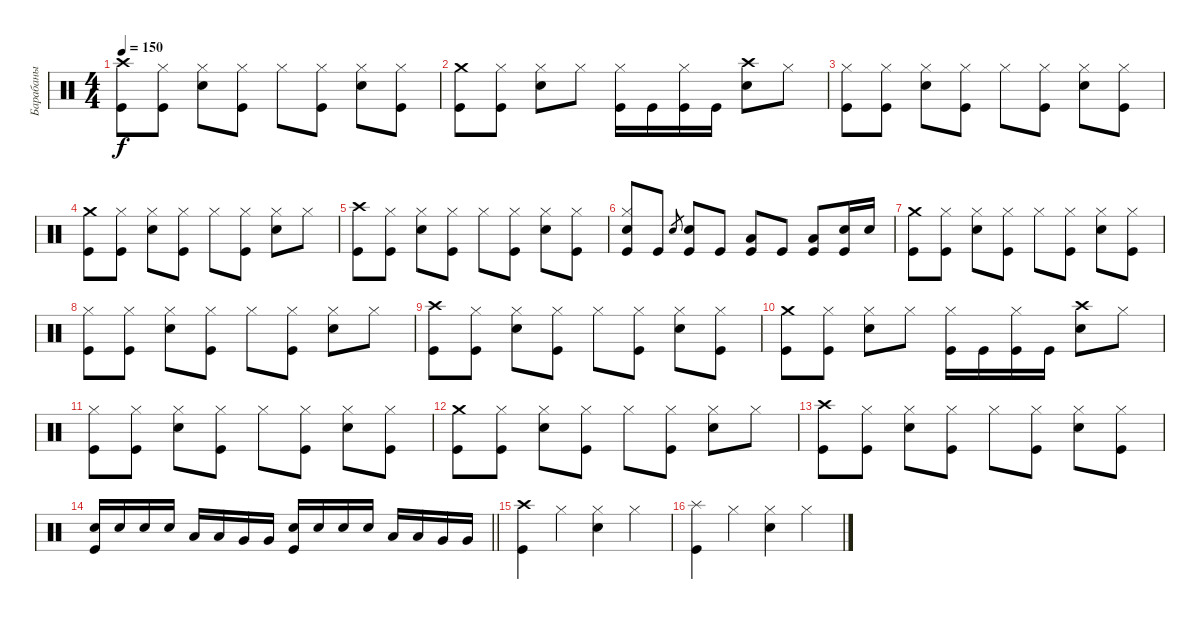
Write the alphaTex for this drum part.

\track ("Барабаны" "Барабаны") {instrument percussion}
\staff {score}
\articulation defaults
\ts (4 4)
\tempo 150
\clef neutral
\ks c
("Crash high (hit)" "Kick (hit)").8{dy f} ("Hi-Hat (closed)" "Kick (hit)").8 ("Hi-Hat (closed)" "Electric Snare (hit)").8 ("Hi-Hat (closed)" "Kick (hit)").8 "Hi-Hat (closed)".8 ("Hi-Hat (closed)" "Kick (hit)").8 ("Hi-Hat (closed)" "Electric Snare (hit)").8 ("Hi-Hat (closed)" "Kick (hit)").8 |
("Crash medium (hit)" "Kick (hit)").8 ("Hi-Hat (closed)" "Kick (hit)").8 ("Hi-Hat (closed)" "Electric Snare (hit)").8 "Hi-Hat (closed)".8 ("Hi-Hat (closed)" "Kick (hit)").16 "Kick (hit)".16 ("Hi-Hat (closed)" "Kick (hit)").16 "Kick (hit)".16 ("Crash high (hit)" "Electric Snare (hit)").8 "Hi-Hat (closed)".8 |
("Hi-Hat (closed)" "Kick (hit)").8 ("Hi-Hat (closed)" "Kick (hit)").8 ("Hi-Hat (closed)" "Electric Snare (hit)").8 ("Hi-Hat (closed)" "Kick (hit)").8 "Hi-Hat (closed)".8 ("Hi-Hat (closed)" "Kick (hit)").8 ("Hi-Hat (closed)" "Electric Snare (hit)").8 ("Hi-Hat (closed)" "Kick (hit)").8 |
("Crash medium (hit)" "Kick (hit)").8 ("Hi-Hat (closed)" "Kick (hit)").8 ("Hi-Hat (closed)" "Electric Snare (hit)").8 ("Hi-Hat (closed)" "Kick (hit)").8 "Hi-Hat (closed)".8 ("Hi-Hat (closed)" "Kick (hit)").8 ("Hi-Hat (closed)" "Electric Snare (hit)").8 "Hi-Hat (closed)".8 |
("Crash high (hit)" "Kick (hit)").8 ("Hi-Hat (closed)" "Kick (hit)").8 ("Hi-Hat (closed)" "Electric Snare (hit)").8 ("Hi-Hat (closed)" "Kick (hit)").8 "Hi-Hat (closed)".8 ("Hi-Hat (closed)" "Kick (hit)").8 ("Hi-Hat (closed)" "Electric Snare (hit)").8 ("Hi-Hat (closed)" "Kick (hit)").8 |
("Hi-Hat (closed)" "Electric Snare (hit)" "Kick (hit)").8 "Kick (hit)".8 "Snare (hit) 2"{h}.8{gr} ("Snare (hit) 2" "Kick (hit)").8 "Kick (hit)".8 ("Low Tom (hit)" "Kick (hit)").8 "Kick (hit)".8 ("Low Tom (hit)" "Kick (hit)").8 ("Snare (hit) 2" "Kick (hit)").16 "Snare (hit) 2".16 |
("Crash medium (hit)" "Kick (hit)").8 ("Hi-Hat (closed)" "Kick (hit)").8 ("Hi-Hat (closed)" "Electric Snare (hit)").8 ("Hi-Hat (closed)" "Kick (hit)").8 "Hi-Hat (closed)".8 ("Hi-Hat (closed)" "Kick (hit)").8 ("Hi-Hat (closed)" "Electric Snare (hit)").8 ("Hi-Hat (closed)" "Kick (hit)").8 |
("Hi-Hat (closed)" "Kick (hit)").8 ("Hi-Hat (closed)" "Kick (hit)").8 ("Hi-Hat (closed)" "Electric Snare (hit)").8 ("Hi-Hat (closed)" "Kick (hit)").8 "Hi-Hat (closed)".8 ("Hi-Hat (closed)" "Kick (hit)").8 ("Hi-Hat (closed)" "Electric Snare (hit)").8 "Hi-Hat (closed)".8 |
("Crash high (hit)" "Kick (hit)").8 ("Hi-Hat (closed)" "Kick (hit)").8 ("Hi-Hat (closed)" "Electric Snare (hit)").8 ("Hi-Hat (closed)" "Kick (hit)").8 "Hi-Hat (closed)".8 ("Hi-Hat (closed)" "Kick (hit)").8 ("Hi-Hat (closed)" "Electric Snare (hit)").8 ("Hi-Hat (closed)" "Kick (hit)").8 |
("Crash medium (hit)" "Kick (hit)").8 ("Hi-Hat (closed)" "Kick (hit)").8 ("Hi-Hat (closed)" "Electric Snare (hit)").8 "Hi-Hat (closed)".8 ("Hi-Hat (closed)" "Kick (hit)").16 "Kick (hit)".16 ("Hi-Hat (closed)" "Kick (hit)").16 "Kick (hit)".16 ("Crash high (hit)" "Electric Snare (hit)").8 "Hi-Hat (closed)".8 |
("Hi-Hat (closed)" "Kick (hit)").8 ("Hi-Hat (closed)" "Kick (hit)").8 ("Hi-Hat (closed)" "Electric Snare (hit)").8 ("Hi-Hat (closed)" "Kick (hit)").8 "Hi-Hat (closed)".8 ("Hi-Hat (closed)" "Kick (hit)").8 ("Hi-Hat (closed)" "Electric Snare (hit)").8 ("Hi-Hat (closed)" "Kick (hit)").8 |
("Crash medium (hit)" "Kick (hit)").8 ("Hi-Hat (closed)" "Kick (hit)").8 ("Hi-Hat (closed)" "Electric Snare (hit)").8 ("Hi-Hat (closed)" "Kick (hit)").8 "Hi-Hat (closed)".8 ("Hi-Hat (closed)" "Kick (hit)").8 ("Hi-Hat (closed)" "Electric Snare (hit)").8 "Hi-Hat (closed)".8 |
("Crash high (hit)" "Kick (hit)").8 ("Hi-Hat (closed)" "Kick (hit)").8 ("Hi-Hat (closed)" "Electric Snare (hit)").8 ("Hi-Hat (closed)" "Kick (hit)").8 "Hi-Hat (closed)".8 ("Hi-Hat (closed)" "Kick (hit)").8 ("Hi-Hat (closed)" "Electric Snare (hit)").8 ("Hi-Hat (closed)" "Kick (hit)").8 |
\barLineRight lightlight
("Electric Snare (hit)" "Kick (hit)").16 "Electric Snare (hit)".16 "Electric Snare (hit)".16 "Electric Snare (hit)".16 "Low Tom (hit)".16 "Low Tom (hit)".16 "Very Low Tom (hit)".16 "Very Low Tom (hit)".16 ("Electric Snare (hit)" "Kick (hit)").16 "Electric Snare (hit)".16 "Electric Snare (hit)".16 "Electric Snare (hit)".16 "Low Tom (hit)".16 "Low Tom (hit)".16 "Very Low Tom (hit)".16 "Very Low Tom (hit)".16 |
("Crash high (hit)" "Kick (hit)").4 "Hi-Hat (closed)".4 ("Hi-Hat (closed)" "Electric Snare (hit)").4 "Hi-Hat (closed)".4 |
("Splash (hit)" "Kick (hit)").4 "Hi-Hat (closed)".4 ("Hi-Hat (closed)" "Electric Snare (hit)").4 "Hi-Hat (closed)".4
